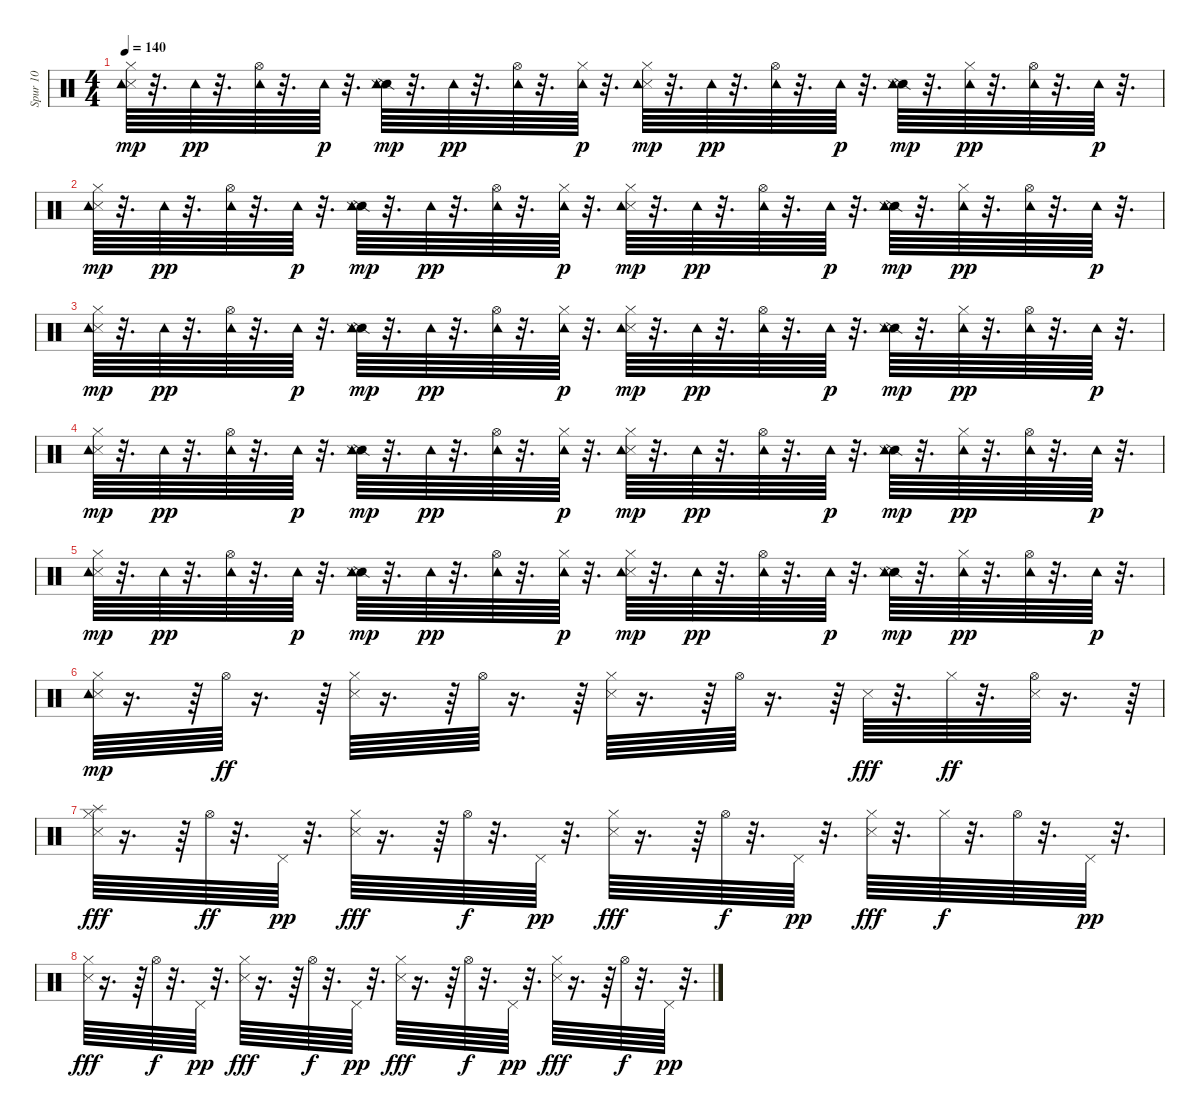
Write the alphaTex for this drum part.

\track ("Spur 10" "Spur 10") {instrument percussion}
\staff {score}
\articulation defaults
\ts (4 4)
\tempo 140
\clef neutral
\ks c
("Metronome (hit)" "Hi-Hat (closed)" "Tambourine (hit)").64{dy mp} r.32{d} "Tambourine (hit)".64{dy pp} r.32{d} ("Hi-Hat (open)" "Tambourine (hit)").64 r.32{d} "Tambourine (hit)".64{dy p} r.32{d} ("Snare (side stick) 2" "Metronome (hit)" "Tambourine (hit)").64{dy mp} r.32{d} "Tambourine (hit)".64{dy pp} r.32{d} ("Hi-Hat (open)" "Tambourine (hit)").64 r.32{d} ("Hi-Hat (closed)" "Tambourine (hit)").64{dy p} r.32{d} ("Metronome (hit)" "Hi-Hat (closed)" "Tambourine (hit)").64{dy mp} r.32{d} "Tambourine (hit)".64{dy pp} r.32{d} ("Hi-Hat (open)" "Tambourine (hit)").64 r.32{d} "Tambourine (hit)".64{dy p} r.32{d} ("Snare (side stick) 2" "Metronome (hit)" "Tambourine (hit)").64{dy mp} r.32{d} ("Hi-Hat (closed)" "Tambourine (hit)").64{dy pp} r.32{d} ("Hi-Hat (open)" "Tambourine (hit)").64 r.32{d} "Tambourine (hit)".64{dy p} r.32{d} |
("Metronome (hit)" "Hi-Hat (closed)" "Tambourine (hit)").64{dy mp} r.32{d} "Tambourine (hit)".64{dy pp} r.32{d} ("Hi-Hat (open)" "Tambourine (hit)").64 r.32{d} "Tambourine (hit)".64{dy p} r.32{d} ("Snare (side stick) 2" "Metronome (hit)" "Tambourine (hit)").64{dy mp} r.32{d} "Tambourine (hit)".64{dy pp} r.32{d} ("Hi-Hat (open)" "Tambourine (hit)").64 r.32{d} ("Hi-Hat (closed)" "Tambourine (hit)").64{dy p} r.32{d} ("Metronome (hit)" "Hi-Hat (closed)" "Tambourine (hit)").64{dy mp} r.32{d} "Tambourine (hit)".64{dy pp} r.32{d} ("Hi-Hat (open)" "Tambourine (hit)").64 r.32{d} "Tambourine (hit)".64{dy p} r.32{d} ("Snare (side stick) 2" "Metronome (hit)" "Tambourine (hit)").64{dy mp} r.32{d} ("Hi-Hat (closed)" "Tambourine (hit)").64{dy pp} r.32{d} ("Hi-Hat (open)" "Tambourine (hit)").64 r.32{d} "Tambourine (hit)".64{dy p} r.32{d} |
("Metronome (hit)" "Hi-Hat (closed)" "Tambourine (hit)").64{dy mp} r.32{d} "Tambourine (hit)".64{dy pp} r.32{d} ("Hi-Hat (open)" "Tambourine (hit)").64 r.32{d} "Tambourine (hit)".64{dy p} r.32{d} ("Snare (side stick) 2" "Metronome (hit)" "Tambourine (hit)").64{dy mp} r.32{d} "Tambourine (hit)".64{dy pp} r.32{d} ("Hi-Hat (open)" "Tambourine (hit)").64 r.32{d} ("Hi-Hat (closed)" "Tambourine (hit)").64{dy p} r.32{d} ("Metronome (hit)" "Hi-Hat (closed)" "Tambourine (hit)").64{dy mp} r.32{d} "Tambourine (hit)".64{dy pp} r.32{d} ("Hi-Hat (open)" "Tambourine (hit)").64 r.32{d} "Tambourine (hit)".64{dy p} r.32{d} ("Snare (side stick) 2" "Metronome (hit)" "Tambourine (hit)").64{dy mp} r.32{d} ("Hi-Hat (closed)" "Tambourine (hit)").64{dy pp} r.32{d} ("Hi-Hat (open)" "Tambourine (hit)").64 r.32{d} "Tambourine (hit)".64{dy p} r.32{d} |
("Metronome (hit)" "Hi-Hat (closed)" "Tambourine (hit)").64{dy mp} r.32{d} "Tambourine (hit)".64{dy pp} r.32{d} ("Hi-Hat (open)" "Tambourine (hit)").64 r.32{d} "Tambourine (hit)".64{dy p} r.32{d} ("Snare (side stick) 2" "Metronome (hit)" "Tambourine (hit)").64{dy mp} r.32{d} "Tambourine (hit)".64{dy pp} r.32{d} ("Hi-Hat (open)" "Tambourine (hit)").64 r.32{d} ("Hi-Hat (closed)" "Tambourine (hit)").64{dy p} r.32{d} ("Metronome (hit)" "Hi-Hat (closed)" "Tambourine (hit)").64{dy mp} r.32{d} "Tambourine (hit)".64{dy pp} r.32{d} ("Hi-Hat (open)" "Tambourine (hit)").64 r.32{d} "Tambourine (hit)".64{dy p} r.32{d} ("Snare (side stick) 2" "Metronome (hit)" "Tambourine (hit)").64{dy mp} r.32{d} ("Hi-Hat (closed)" "Tambourine (hit)").64{dy pp} r.32{d} ("Hi-Hat (open)" "Tambourine (hit)").64 r.32{d} "Tambourine (hit)".64{dy p} r.32{d} |
("Metronome (hit)" "Hi-Hat (closed)" "Tambourine (hit)").64{dy mp} r.32{d} "Tambourine (hit)".64{dy pp} r.32{d} ("Hi-Hat (open)" "Tambourine (hit)").64 r.32{d} "Tambourine (hit)".64{dy p} r.32{d} ("Snare (side stick) 2" "Metronome (hit)" "Tambourine (hit)").64{dy mp} r.32{d} "Tambourine (hit)".64{dy pp} r.32{d} ("Hi-Hat (open)" "Tambourine (hit)").64 r.32{d} ("Hi-Hat (closed)" "Tambourine (hit)").64{dy p} r.32{d} ("Metronome (hit)" "Hi-Hat (closed)" "Tambourine (hit)").64{dy mp} r.32{d} "Tambourine (hit)".64{dy pp} r.32{d} ("Hi-Hat (open)" "Tambourine (hit)").64 r.32{d} "Tambourine (hit)".64{dy p} r.32{d} ("Snare (side stick) 2" "Metronome (hit)" "Tambourine (hit)").64{dy mp} r.32{d} ("Hi-Hat (closed)" "Tambourine (hit)").64{dy pp} r.32{d} ("Hi-Hat (open)" "Tambourine (hit)").64 r.32{d} "Tambourine (hit)".64{dy p} r.32{d} |
("Metronome (hit)" "Hi-Hat (closed)" "Tambourine (hit)").64{dy mp} r.16{d} r.64 "Hi-Hat (open)".64{dy ff} r.16{d} r.64 ("Metronome (hit)" "Hi-Hat (closed)").64 r.16{d} r.64 "Hi-Hat (open)".64 r.16{d} r.64 ("Metronome (hit)" "Hi-Hat (closed)").64 r.16{d} r.64 "Hi-Hat (open)".64 r.16{d} r.64 "Metronome (hit)".64{dy fff} r.32{d} "Hi-Hat (closed)".64{dy ff} r.32{d} ("Metronome (hit)" "Hi-Hat (open)").64 r.16{d} r.64 |
("Splash (hit)" "Metronome (hit)" "Hi-Hat (closed)").64{dy fff} r.16{d} r.64 "Hi-Hat (open)".64{dy ff} r.32{d} "Pedal Hi-Hat (hit)".64{dy pp} r.32{d} ("Metronome (hit)" "Hi-Hat (closed)").64{dy fff} r.16{d} r.64 "Hi-Hat (open)".64{dy f} r.32{d} "Pedal Hi-Hat (hit)".64{dy pp} r.32{d} ("Metronome (hit)" "Hi-Hat (closed)").64{dy fff} r.16{d} r.64 "Hi-Hat (open)".64{dy f} r.32{d} "Pedal Hi-Hat (hit)".64{dy pp} r.32{d} ("Metronome (hit)" "Hi-Hat (closed)").64{dy fff} r.32{d} "Hi-Hat (closed)".64{dy f} r.32{d} "Hi-Hat (open)".64 r.32{d} "Pedal Hi-Hat (hit)".64{dy pp} r.32{d} |
("Metronome (hit)" "Hi-Hat (closed)").64{dy fff} r.16{d} r.64 "Hi-Hat (open)".64{dy f} r.32{d} "Pedal Hi-Hat (hit)".64{dy pp} r.32{d} ("Metronome (hit)" "Hi-Hat (closed)").64{dy fff} r.16{d} r.64 "Hi-Hat (open)".64{dy f} r.32{d} "Pedal Hi-Hat (hit)".64{dy pp} r.32{d} ("Metronome (hit)" "Hi-Hat (closed)").64{dy fff} r.16{d} r.64 "Hi-Hat (open)".64{dy f} r.32{d} "Pedal Hi-Hat (hit)".64{dy pp} r.32{d} ("Metronome (hit)" "Hi-Hat (closed)").64{dy fff} r.16{d} r.64 "Hi-Hat (open)".64{dy f} r.32{d} "Pedal Hi-Hat (hit)".64{dy pp} r.32{d}
